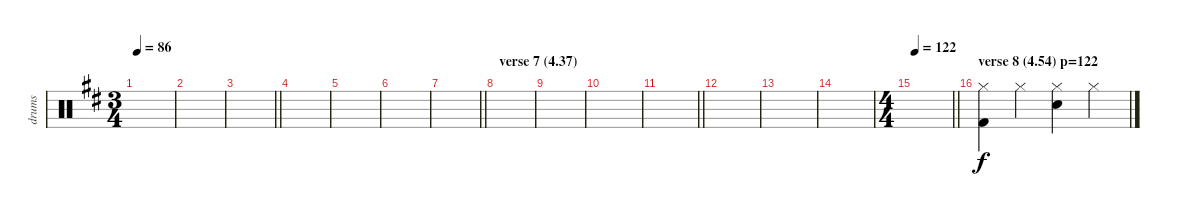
\track ("drums" "drums") {instrument percussion}
\staff {score}
\articulation defaults
\ts (3 4)
\tempo 86
\clef neutral
\ks d
|
|
\barLineRight lightlight
|
|
|
|
\barLineRight lightlight
|
\section ("" "verse 7 (4.37)")
|
|
|
\barLineRight lightlight
|
|
|
|
\ts (4 4)
\tempo 122
\barLineRight lightlight
|
\section ("" "verse 8 (4.54) p=122")
("Hi-Hat (closed)" "Kick (hit) 2").4 "Hi-Hat (closed)".4 ("Hi-Hat (closed)" "Electric Snare (hit)").4 "Hi-Hat (closed)".4
